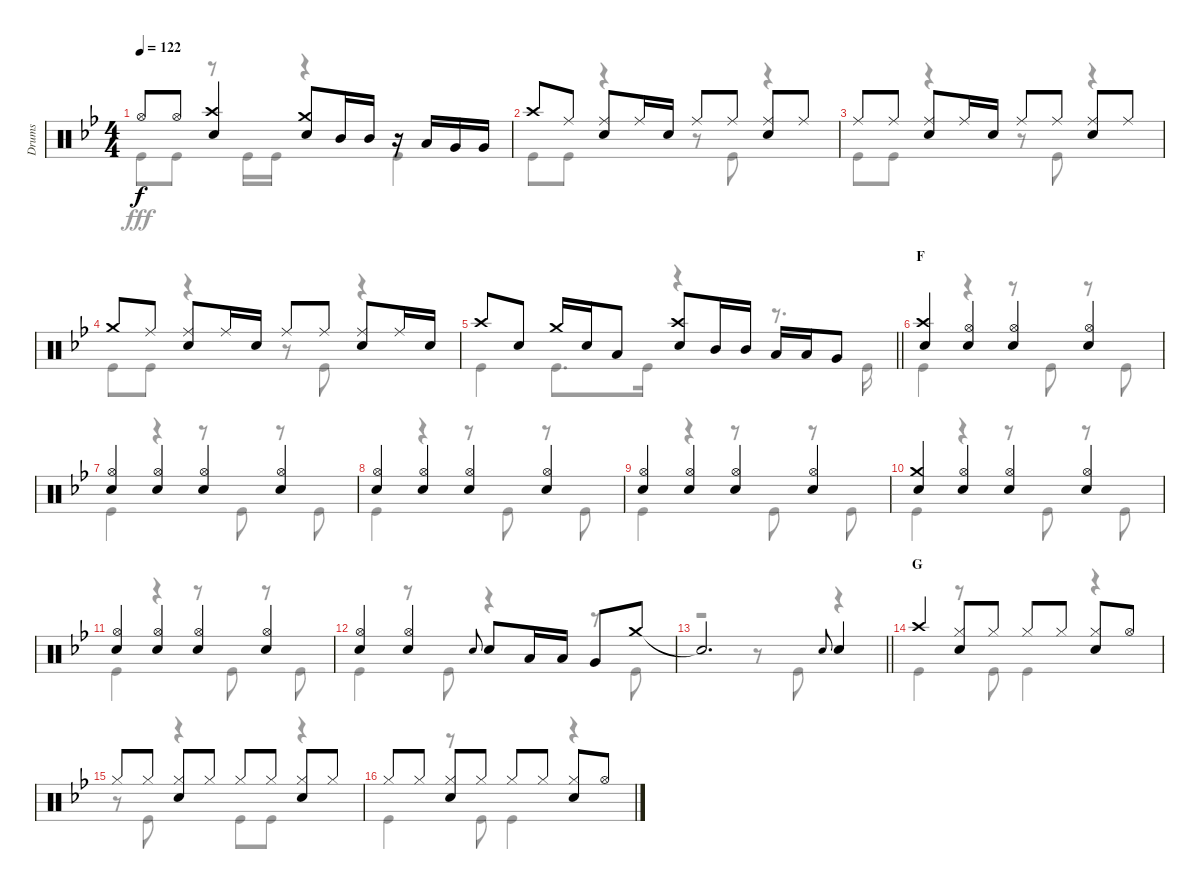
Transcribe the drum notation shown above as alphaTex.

\track ("Drums" "Drums") {instrument percussion}
\staff {score}
\articulation defaults
\voice
\ts (4 4)
\tempo 122
\clef neutral
\ks bb "Hi-Hat (open)".8{dy f} "Hi-Hat (open)".8
("Crash high (hit)" "Snare (hit) 2").4 ("Crash medium (hit)" "Snare (hit) 2").8 "Mid Tom (hit)".16 "Mid Tom (hit)".16 r.16 "Low Tom (hit)".16 "Very Low Tom (hit)".16 "Very Low Tom (hit)".16 |
"Crash high (hit)".8 "Ride (middle)".8 ("Ride (middle)" "Snare (hit) 2").8 "Ride (middle)".16 "Snare (hit) 2".16 "Ride (middle)".8 "Ride (middle)".8 ("Ride (middle)" "Snare (hit) 2").8 "Ride (middle)".8 |
"Ride (middle)".8 "Ride (middle)".8 ("Ride (middle)" "Snare (hit) 2").8 "Ride (middle)".16 "Snare (hit) 2".16 "Ride (middle)".8 "Ride (middle)".8 ("Ride (middle)" "Snare (hit) 2").8 "Ride (middle)".8 |
"Crash medium (hit)".8 "Ride (middle)".8 ("Ride (middle)" "Snare (hit) 2").8 "Ride (middle)".16 "Snare (hit) 2".16 "Ride (middle)".8 "Ride (middle)".8 ("Ride (middle)" "Snare (hit) 2").8 "Ride (middle)".16 "Snare (hit) 2".16 |
\barLineRight lightlight "Crash high (hit)".8 "Snare (hit) 2".8 "Crash medium (hit)".16 "Snare (hit) 2".16 "Low Tom (hit)".8
("Crash high (hit)" "Snare (hit) 2").8 "Mid Tom (hit)".16 "Mid Tom (hit)".16 "Low Tom (hit)".16 "Low Tom (hit)".16 "Very Low Tom (hit)".8 |
\section ("" "F")
("Crash high (hit)" "Snare (hit) 2").4 ("Hi-Hat (open)" "Snare (hit) 2").4 ("Hi-Hat (open)" "Snare (hit) 2").4 ("Hi-Hat (open)" "Snare (hit) 2").4 |
("Hi-Hat (open)" "Snare (hit) 2").4 ("Hi-Hat (open)" "Snare (hit) 2").4 ("Hi-Hat (open)" "Snare (hit) 2").4 ("Hi-Hat (open)" "Snare (hit) 2").4 |
("Hi-Hat (open)" "Snare (hit) 2").4 ("Hi-Hat (open)" "Snare (hit) 2").4 ("Hi-Hat (open)" "Snare (hit) 2").4 ("Hi-Hat (open)" "Snare (hit) 2").4 |
("Hi-Hat (open)" "Snare (hit) 2").4 ("Hi-Hat (open)" "Snare (hit) 2").4 ("Hi-Hat (open)" "Snare (hit) 2").4 ("Hi-Hat (open)" "Snare (hit) 2").4 |
("Crash medium (hit)" "Snare (hit) 2").4 ("Hi-Hat (open)" "Snare (hit) 2").4 ("Hi-Hat (open)" "Snare (hit) 2").4 ("Hi-Hat (open)" "Snare (hit) 2").4 |
("Hi-Hat (open)" "Snare (hit) 2").4 ("Hi-Hat (open)" "Snare (hit) 2").4 ("Hi-Hat (open)" "Snare (hit) 2").4 ("Hi-Hat (open)" "Snare (hit) 2").4 |
("Hi-Hat (open)" "Snare (hit) 2").4 ("Hi-Hat (open)" "Snare (hit) 2").4 "Snare (hit) 2".8{gr onbeat} "Snare (hit) 2".8 "Low Tom (hit)".16 "Low Tom (hit)".16 "Very Low Tom (hit)".8 "Crash medium (hit)".8 |
\barLineRight lightlight "Snare (hit)"{t}.2{d} "Snare (hit) 2".8{gr onbeat} "Snare (hit) 2".4
|
\section ("" "G")
"Crash high (hit)".4 ("Hi-Hat (closed)" "Snare (hit) 2").8 "Hi-Hat (closed)".8 "Hi-Hat (closed)".8 "Hi-Hat (closed)".8 ("Hi-Hat (closed)" "Snare (hit) 2").8 "Hi-Hat (open)".8 |
"Hi-Hat (closed)".8 "Hi-Hat (closed)".8 ("Hi-Hat (closed)" "Snare (hit) 2").8 "Hi-Hat (closed)".8 "Hi-Hat (closed)".8 "Hi-Hat (closed)".8 ("Hi-Hat (closed)" "Snare (hit) 2").8 "Hi-Hat (closed)".8 |
"Hi-Hat (closed)".8 "Hi-Hat (closed)".8 ("Hi-Hat (closed)" "Snare (hit) 2").8 "Hi-Hat (closed)".8 "Hi-Hat (closed)".8 "Hi-Hat (closed)".8 ("Hi-Hat (closed)" "Snare (hit) 2").8 "Hi-Hat (open)".8
\voice
\clef neutral
\ottava regular
\simile none
\ks bb "Kick (hit)".8{dy fff} "Kick (hit)".8
r.8 "Kick (hit)".16 "Kick (hit)".16 r.4 "Kick (hit)".4 |
"Kick (hit)".8 "Kick (hit)".8 r.4 r.8 "Kick (hit)".8 r.4 |
"Kick (hit)".8 "Kick (hit)".8 r.4 r.8 "Kick (hit)".8 r.4 |
"Kick (hit)".8 "Kick (hit)".8 r.4 r.8 "Kick (hit)".8 r.4 |
\barLineRight lightlight "Kick (hit)".4 "Kick (hit)".8{d} "Kick (hit)".16
r.4 r.8{d} "Kick (hit)".16 |
"Kick (hit)".4 r.4 r.8 "Kick (hit)".8 r.8 "Kick (hit)".8 |
"Kick (hit)".4 r.4 r.8 "Kick (hit)".8 r.8 "Kick (hit)".8 |
"Kick (hit)".4 r.4 r.8 "Kick (hit)".8 r.8 "Kick (hit)".8 |
"Kick (hit)".4 r.4 r.8 "Kick (hit)".8 r.8 "Kick (hit)".8 |
"Kick (hit)".4 r.4 r.8 "Kick (hit)".8 r.8 "Kick (hit)".8 |
"Kick (hit)".4 r.4 r.8 "Kick (hit)".8 r.8 "Kick (hit)".8 |
"Kick (hit)".4 r.8 "Kick (hit)".8 r.4 r.8 "Kick (hit)".8 |
\barLineRight lightlight
r.2 r.8 "Kick (hit)".8 r.4 |
"Kick (hit)".4 r.8 "Kick (hit)".8 "Kick (hit)".4 r.4 |
r.8 "Kick (hit)".8 r.4 "Kick (hit)".8 "Kick (hit)".8 r.4 |
"Kick (hit)".4 r.8 "Kick (hit)".8 "Kick (hit)".4 r.4
